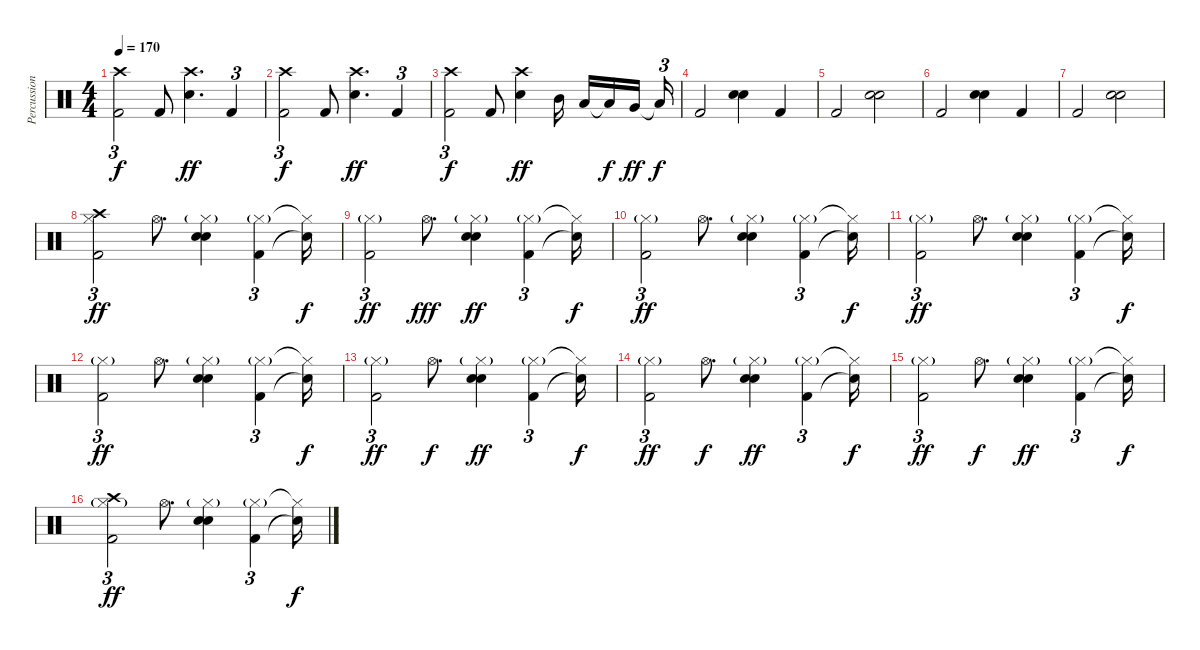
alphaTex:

\track ("Percussion" "Percussion") {instrument percussion bank 127}
\staff {score}
\articulation defaults
\ts (4 4)
\tempo 170
\clef neutral
\ks c
("Crash high (hit)" "Kick (hit) 2").2{tu (3 2) dy f} "Kick (hit) 2".8 ("Crash high (hit)" "Snare (hit) 2").4{d dy ff} "Kick (hit) 2".4{tu (3 2)} |
("Crash high (hit)" "Kick (hit) 2").2{tu (3 2) dy f} "Kick (hit) 2".8 ("Crash high (hit)" "Snare (hit) 2").4{d dy ff} "Kick (hit) 2".4{tu (3 2)} |
("Crash high (hit)" "Kick (hit) 2").2{tu (3 2) dy f} "Kick (hit) 2".8 ("Crash high (hit)" "Snare (hit) 2").4{dy ff} "Mid Tom (hit)".16 "Low Tom (hit)".16 "Low Tom (hit)"{t}.16{dy f} "Very Low Tom (hit)".16{dy ff beam splitsecondary} "Low Floor Tom (hit)"{t}.16{tu (3 2) dy f} |
"Kick (hit) 2".2 ("Snare (hit) 2" "Electric Snare (hit)").4 "Kick (hit) 2".4 |
"Kick (hit) 2".2 ("Snare (hit) 2" "Electric Snare (hit)").2 |
"Kick (hit) 2".2 ("Snare (hit) 2" "Electric Snare (hit)").4 "Kick (hit) 2".4 |
"Kick (hit) 2".2 ("Snare (hit) 2" "Electric Snare (hit)").2 |
("Hi-Hat (closed)" "Kick (hit) 2" "Crash high (hit)").2{tu (3 2) dy ff} "Hi-Hat (open)".8{d} ("Hi-Hat (closed)"{g} "Snare (hit) 2" "Electric Snare (hit)").4 ("Hi-Hat (closed)"{g} "Kick (hit) 2").4{tu (3 2)} ("Hi-Hat (closed)"{t} "Snare (hit)"{t}).16{dy f} |
("Hi-Hat (closed)"{g} "Kick (hit) 2").2{tu (3 2) dy ff} "Hi-Hat (open)".8{d dy fff} ("Hi-Hat (closed)"{g} "Snare (hit) 2" "Electric Snare (hit)").4{dy ff} ("Hi-Hat (closed)"{g} "Kick (hit) 2").4{tu (3 2)} ("Hi-Hat (closed)"{t} "Snare (hit)"{t}).16{dy f} |
("Hi-Hat (closed)"{g} "Kick (hit) 2").2{tu (3 2) dy ff} "Hi-Hat (open)".8{d} ("Hi-Hat (closed)"{g} "Snare (hit) 2" "Electric Snare (hit)").4 ("Hi-Hat (closed)"{g} "Kick (hit) 2").4{tu (3 2)} ("Hi-Hat (closed)"{t} "Snare (hit)"{t}).16{dy f} |
("Hi-Hat (closed)"{g} "Kick (hit) 2").2{tu (3 2) dy ff} "Hi-Hat (open)".8{d} ("Hi-Hat (closed)"{g} "Snare (hit) 2" "Electric Snare (hit)").4 ("Hi-Hat (closed)"{g} "Kick (hit) 2").4{tu (3 2)} ("Hi-Hat (closed)"{t} "Snare (hit)"{t}).16{dy f} |
("Hi-Hat (closed)"{g} "Kick (hit) 2").2{tu (3 2) dy ff} "Hi-Hat (open)".8{d} ("Hi-Hat (closed)"{g} "Snare (hit) 2" "Electric Snare (hit)").4 ("Hi-Hat (closed)"{g} "Kick (hit) 2").4{tu (3 2)} ("Hi-Hat (closed)"{t} "Snare (hit)"{t}).16{dy f} |
("Hi-Hat (closed)"{g} "Kick (hit) 2").2{tu (3 2) dy ff} "Hi-Hat (open)".8{d dy f} ("Hi-Hat (closed)"{g} "Snare (hit) 2" "Electric Snare (hit)").4{dy ff} ("Hi-Hat (closed)"{g} "Kick (hit) 2").4{tu (3 2)} ("Hi-Hat (closed)"{t} "Snare (hit)"{t}).16{dy f} |
("Hi-Hat (closed)"{g} "Kick (hit) 2").2{tu (3 2) dy ff} "Hi-Hat (open)".8{d dy f} ("Hi-Hat (closed)"{g} "Snare (hit) 2" "Electric Snare (hit)").4{dy ff} ("Hi-Hat (closed)"{g} "Kick (hit) 2").4{tu (3 2)} ("Hi-Hat (closed)"{t} "Snare (hit)"{t}).16{dy f} |
("Hi-Hat (closed)"{g} "Kick (hit) 2").2{tu (3 2) dy ff} "Hi-Hat (open)".8{d dy f} ("Hi-Hat (closed)"{g} "Snare (hit) 2" "Electric Snare (hit)").4{dy ff} ("Hi-Hat (closed)"{g} "Kick (hit) 2").4{tu (3 2)} ("Hi-Hat (closed)"{t} "Snare (hit)"{t}).16{dy f} |
("Hi-Hat (closed)"{g} "Kick (hit) 2" "Crash high (hit)").2{tu (3 2) dy ff} "Hi-Hat (open)".8{d} ("Hi-Hat (closed)"{g} "Snare (hit) 2" "Electric Snare (hit)").4 ("Hi-Hat (closed)"{g} "Kick (hit) 2").4{tu (3 2)} ("Hi-Hat (closed)"{t} "Snare (hit)"{t}).16{dy f}
